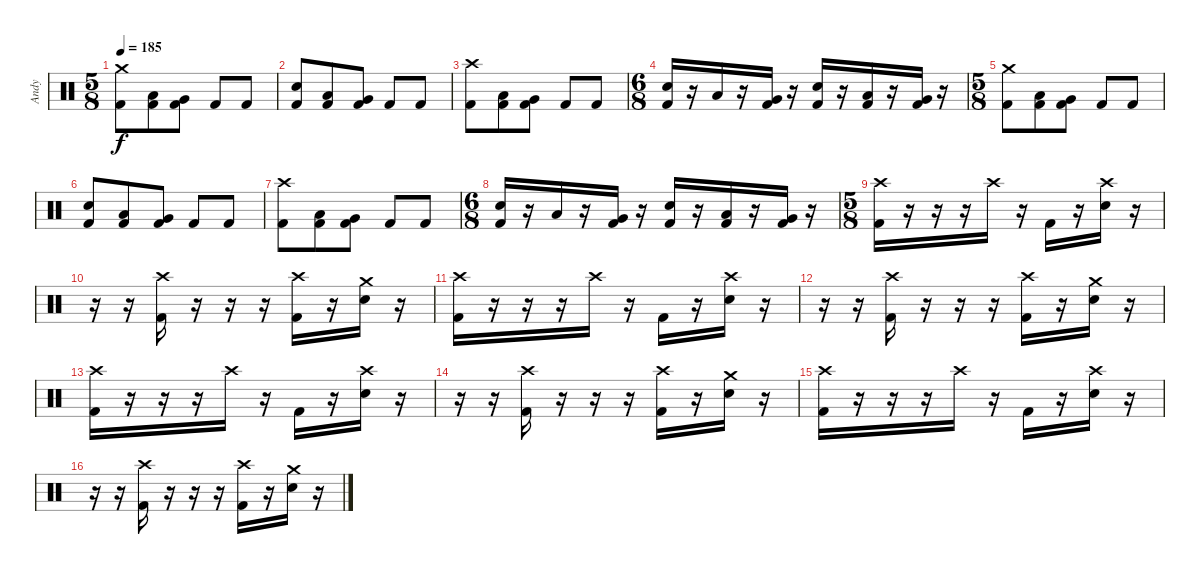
\track ("Andy" "Andy") {instrument percussion}
\staff {score}
\articulation defaults
\ts (5 8)
\tempo 185
\clef neutral
\ks c
("Crash medium (hit)" "Kick (hit) 2").8{dy f} ("Low Tom (hit)" "Kick (hit) 2").8 ("Very Low Tom (hit)" "Kick (hit) 2").8 "Kick (hit) 2".8 "Kick (hit) 2".8 |
("Electric Snare (hit)" "Kick (hit) 2").8 ("Low Tom (hit)" "Kick (hit) 2").8 ("Very Low Tom (hit)" "Kick (hit) 2").8 "Kick (hit) 2".8 "Kick (hit) 2".8 |
("Crash high (hit)" "Kick (hit) 2").8 ("Low Tom (hit)" "Kick (hit) 2").8 ("Very Low Tom (hit)" "Kick (hit) 2").8 "Kick (hit) 2".8 "Kick (hit) 2".8 |
\ts (6 8)
("Electric Snare (hit)" "Kick (hit) 2").16 r.16 "Low Tom (hit)".16 r.16 ("Very Low Tom (hit)" "Kick (hit) 2").16 r.16 ("Electric Snare (hit)" "Kick (hit) 2").16 r.16 ("Low Tom (hit)" "Kick (hit) 2").16 r.16 ("Very Low Tom (hit)" "Kick (hit) 2").16 r.16 |
\ts (5 8)
("Crash medium (hit)" "Kick (hit) 2").8 ("Low Tom (hit)" "Kick (hit) 2").8 ("Very Low Tom (hit)" "Kick (hit) 2").8 "Kick (hit) 2".8 "Kick (hit) 2".8 |
("Electric Snare (hit)" "Kick (hit) 2").8 ("Low Tom (hit)" "Kick (hit) 2").8 ("Very Low Tom (hit)" "Kick (hit) 2").8 "Kick (hit) 2".8 "Kick (hit) 2".8 |
("Crash high (hit)" "Kick (hit) 2").8 ("Low Tom (hit)" "Kick (hit) 2").8 ("Very Low Tom (hit)" "Kick (hit) 2").8 "Kick (hit) 2".8 "Kick (hit) 2".8 |
\ts (6 8)
("Electric Snare (hit)" "Kick (hit) 2").16 r.16 "Low Tom (hit)".16 r.16 ("Very Low Tom (hit)" "Kick (hit) 2").16 r.16 ("Electric Snare (hit)" "Kick (hit) 2").16 r.16 ("Low Tom (hit)" "Kick (hit) 2").16 r.16 ("Very Low Tom (hit)" "Kick (hit) 2").16 r.16 |
\ts (5 8)
("Crash high (hit)" "Kick (hit) 2").16 r.16 r.16 r.16 "Crash high (hit)".16 r.16 "Kick (hit) 2".16 r.16 ("Crash high (hit)" "Electric Snare (hit)").16 r.16 |
r.16 r.16 ("Crash high (hit)" "Kick (hit) 2").16 r.16 r.16 r.16 ("Crash high (hit)" "Kick (hit) 2").16 r.16 ("Crash medium (hit)" "Electric Snare (hit)").16 r.16 |
("Crash high (hit)" "Kick (hit) 2").16 r.16 r.16 r.16 "Crash high (hit)".16 r.16 "Kick (hit) 2".16 r.16 ("Crash high (hit)" "Electric Snare (hit)").16 r.16 |
r.16 r.16 ("Crash high (hit)" "Kick (hit) 2").16 r.16 r.16 r.16 ("Crash high (hit)" "Kick (hit) 2").16 r.16 ("Crash medium (hit)" "Electric Snare (hit)").16 r.16 |
("Crash high (hit)" "Kick (hit) 2").16 r.16 r.16 r.16 "Crash high (hit)".16 r.16 "Kick (hit) 2".16 r.16 ("Crash high (hit)" "Electric Snare (hit)").16 r.16 |
r.16 r.16 ("Crash high (hit)" "Kick (hit) 2").16 r.16 r.16 r.16 ("Crash high (hit)" "Kick (hit) 2").16 r.16 ("Crash medium (hit)" "Electric Snare (hit)").16 r.16 |
("Crash high (hit)" "Kick (hit) 2").16 r.16 r.16 r.16 "Crash high (hit)".16 r.16 "Kick (hit) 2".16 r.16 ("Crash high (hit)" "Electric Snare (hit)").16 r.16 |
r.16 r.16 ("Crash high (hit)" "Kick (hit) 2").16 r.16 r.16 r.16 ("Crash high (hit)" "Kick (hit) 2").16 r.16 ("Crash medium (hit)" "Electric Snare (hit)").16 r.16
